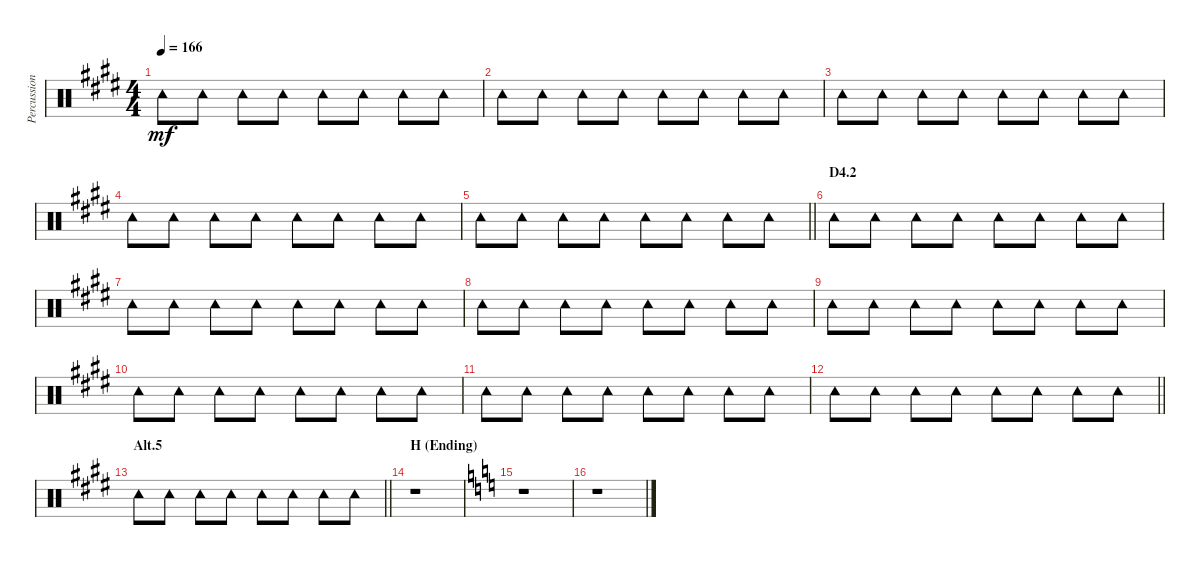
\track ("Percussion" "Percussion") {instrument percussion}
\staff {score}
\articulation defaults
\ts (4 4)
\tempo 166
\clef neutral
\ks e "Tambourine (hit)".8{dy mf} "Tambourine (hit)".8 "Tambourine (hit)".8 "Tambourine (hit)".8 "Tambourine (hit)".8 "Tambourine (hit)".8 "Tambourine (hit)".8 "Tambourine (hit)".8
|
"Tambourine (hit)".8 "Tambourine (hit)".8 "Tambourine (hit)".8 "Tambourine (hit)".8 "Tambourine (hit)".8 "Tambourine (hit)".8 "Tambourine (hit)".8 "Tambourine (hit)".8 |
"Tambourine (hit)".8 "Tambourine (hit)".8 "Tambourine (hit)".8 "Tambourine (hit)".8 "Tambourine (hit)".8 "Tambourine (hit)".8 "Tambourine (hit)".8 "Tambourine (hit)".8 |
"Tambourine (hit)".8 "Tambourine (hit)".8 "Tambourine (hit)".8 "Tambourine (hit)".8 "Tambourine (hit)".8 "Tambourine (hit)".8 "Tambourine (hit)".8 "Tambourine (hit)".8 |
\barLineRight lightlight "Tambourine (hit)".8 "Tambourine (hit)".8 "Tambourine (hit)".8 "Tambourine (hit)".8 "Tambourine (hit)".8 "Tambourine (hit)".8 "Tambourine (hit)".8 "Tambourine (hit)".8
|
\section ("" "D4.2")
"Tambourine (hit)".8 "Tambourine (hit)".8 "Tambourine (hit)".8 "Tambourine (hit)".8 "Tambourine (hit)".8 "Tambourine (hit)".8 "Tambourine (hit)".8 "Tambourine (hit)".8 |
"Tambourine (hit)".8 "Tambourine (hit)".8 "Tambourine (hit)".8 "Tambourine (hit)".8 "Tambourine (hit)".8 "Tambourine (hit)".8 "Tambourine (hit)".8 "Tambourine (hit)".8 |
"Tambourine (hit)".8 "Tambourine (hit)".8 "Tambourine (hit)".8 "Tambourine (hit)".8 "Tambourine (hit)".8 "Tambourine (hit)".8 "Tambourine (hit)".8 "Tambourine (hit)".8 |
"Tambourine (hit)".8 "Tambourine (hit)".8 "Tambourine (hit)".8 "Tambourine (hit)".8 "Tambourine (hit)".8 "Tambourine (hit)".8 "Tambourine (hit)".8 "Tambourine (hit)".8 |
"Tambourine (hit)".8 "Tambourine (hit)".8 "Tambourine (hit)".8 "Tambourine (hit)".8 "Tambourine (hit)".8 "Tambourine (hit)".8 "Tambourine (hit)".8 "Tambourine (hit)".8 |
"Tambourine (hit)".8 "Tambourine (hit)".8 "Tambourine (hit)".8 "Tambourine (hit)".8 "Tambourine (hit)".8 "Tambourine (hit)".8 "Tambourine (hit)".8 "Tambourine (hit)".8 |
\barLineRight lightlight "Tambourine (hit)".8 "Tambourine (hit)".8 "Tambourine (hit)".8 "Tambourine (hit)".8 "Tambourine (hit)".8 "Tambourine (hit)".8 "Tambourine (hit)".8 "Tambourine (hit)".8
|
\section ("" "Alt.5")
\barLineRight lightlight "Tambourine (hit)".8 "Tambourine (hit)".8 "Tambourine (hit)".8 "Tambourine (hit)".8 "Tambourine (hit)".8 "Tambourine (hit)".8 "Tambourine (hit)".8 "Tambourine (hit)".8
|
\section ("" "H (Ending)")
r.1 |
\ks c
r.1 |
r.1
